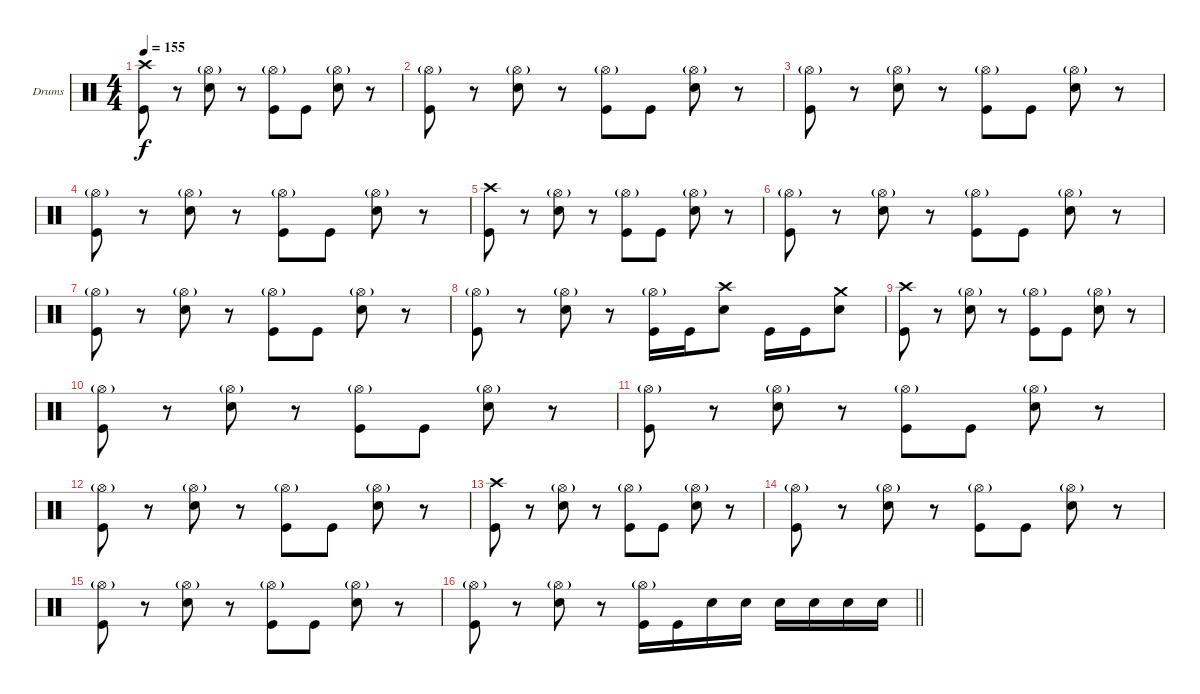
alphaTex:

\bracketExtendMode groupsimilarinstruments
\firstSystemTrackNameOrientation horizontal
\otherSystemsTrackNameOrientation horizontal
\track ("Drumkit" "Drums") {instrument percussion}
\staff {score}
\articulation defaults
\ts (4 4)
\section ("" "")
\tempo 155
\clef neutral
\ks c
("Crash high (hit)" "Kick (hit)").8{dy f} r.8 ("Hi-Hat (open)"{g} "Snare (hit) 2").8 r.8 ("Hi-Hat (open)"{g} "Kick (hit)").8 "Kick (hit)".8 ("Hi-Hat (open)"{g} "Snare (hit) 2").8 r.8 |
("Hi-Hat (open)"{g} "Kick (hit)").8 r.8 ("Hi-Hat (open)"{g} "Snare (hit) 2").8 r.8 ("Hi-Hat (open)"{g} "Kick (hit)").8 "Kick (hit)".8 ("Hi-Hat (open)"{g} "Snare (hit) 2").8 r.8 |
("Hi-Hat (open)"{g} "Kick (hit)").8 r.8 ("Hi-Hat (open)"{g} "Snare (hit) 2").8 r.8 ("Hi-Hat (open)"{g} "Kick (hit)").8 "Kick (hit)".8 ("Hi-Hat (open)"{g} "Snare (hit) 2").8 r.8 |
("Hi-Hat (open)"{g} "Kick (hit)").8 r.8 ("Hi-Hat (open)"{g} "Snare (hit) 2").8 r.8 ("Hi-Hat (open)"{g} "Kick (hit)").8 "Kick (hit)".8 ("Hi-Hat (open)"{g} "Snare (hit) 2").8 r.8 |
("Crash high (hit)" "Kick (hit)").8 r.8 ("Hi-Hat (open)"{g} "Snare (hit) 2").8 r.8 ("Hi-Hat (open)"{g} "Kick (hit)").8 "Kick (hit)".8 ("Hi-Hat (open)"{g} "Snare (hit) 2").8 r.8 |
("Hi-Hat (open)"{g} "Kick (hit)").8 r.8 ("Hi-Hat (open)"{g} "Snare (hit) 2").8 r.8 ("Hi-Hat (open)"{g} "Kick (hit)").8 "Kick (hit)".8 ("Hi-Hat (open)"{g} "Snare (hit) 2").8 r.8 |
("Hi-Hat (open)"{g} "Kick (hit)").8 r.8 ("Hi-Hat (open)"{g} "Snare (hit) 2").8 r.8 ("Hi-Hat (open)"{g} "Kick (hit)").8 "Kick (hit)".8 ("Hi-Hat (open)"{g} "Snare (hit) 2").8 r.8 |
("Hi-Hat (open)"{g} "Kick (hit)").8 r.8 ("Hi-Hat (open)"{g} "Snare (hit) 2").8 r.8 ("Hi-Hat (open)"{g} "Kick (hit)").16 "Kick (hit)".16 ("Crash high (hit)" "Snare (hit) 2").8 "Kick (hit)".16 "Kick (hit)".16 ("Crash medium (hit)" "Snare (hit) 2").8 |
("Crash high (hit)" "Kick (hit)").8 r.8 ("Hi-Hat (open)"{g} "Snare (hit) 2").8 r.8 ("Hi-Hat (open)"{g} "Kick (hit)").8 "Kick (hit)".8 ("Hi-Hat (open)"{g} "Snare (hit) 2").8 r.8 |
("Hi-Hat (open)"{g} "Kick (hit)").8 r.8 ("Hi-Hat (open)"{g} "Snare (hit) 2").8 r.8 ("Hi-Hat (open)"{g} "Kick (hit)").8 "Kick (hit)".8 ("Hi-Hat (open)"{g} "Snare (hit) 2").8 r.8 |
("Hi-Hat (open)"{g} "Kick (hit)").8 r.8 ("Hi-Hat (open)"{g} "Snare (hit) 2").8 r.8 ("Hi-Hat (open)"{g} "Kick (hit)").8 "Kick (hit)".8 ("Hi-Hat (open)"{g} "Snare (hit) 2").8 r.8 |
("Hi-Hat (open)"{g} "Kick (hit)").8 r.8 ("Hi-Hat (open)"{g} "Snare (hit) 2").8 r.8 ("Hi-Hat (open)"{g} "Kick (hit)").8 "Kick (hit)".8 ("Hi-Hat (open)"{g} "Snare (hit) 2").8 r.8 |
("Crash high (hit)" "Kick (hit)").8 r.8 ("Hi-Hat (open)"{g} "Snare (hit) 2").8 r.8 ("Hi-Hat (open)"{g} "Kick (hit)").8 "Kick (hit)".8 ("Hi-Hat (open)"{g} "Snare (hit) 2").8 r.8 |
("Hi-Hat (open)"{g} "Kick (hit)").8 r.8 ("Hi-Hat (open)"{g} "Snare (hit) 2").8 r.8 ("Hi-Hat (open)"{g} "Kick (hit)").8 "Kick (hit)".8 ("Hi-Hat (open)"{g} "Snare (hit) 2").8 r.8 |
("Hi-Hat (open)"{g} "Kick (hit)").8 r.8 ("Hi-Hat (open)"{g} "Snare (hit) 2").8 r.8 ("Hi-Hat (open)"{g} "Kick (hit)").8 "Kick (hit)".8 ("Hi-Hat (open)"{g} "Snare (hit) 2").8 r.8 |
\barLineRight lightlight
("Hi-Hat (open)"{g} "Kick (hit)").8 r.8 ("Hi-Hat (open)"{g} "Snare (hit) 2").8 r.8 ("Hi-Hat (open)"{g} "Kick (hit)").16 "Kick (hit)".16 "Snare (hit) 2".16 "Snare (hit) 2".16 "Snare (hit) 2".16 "Snare (hit) 2".16 "Snare (hit) 2".16 "Snare (hit) 2".16
